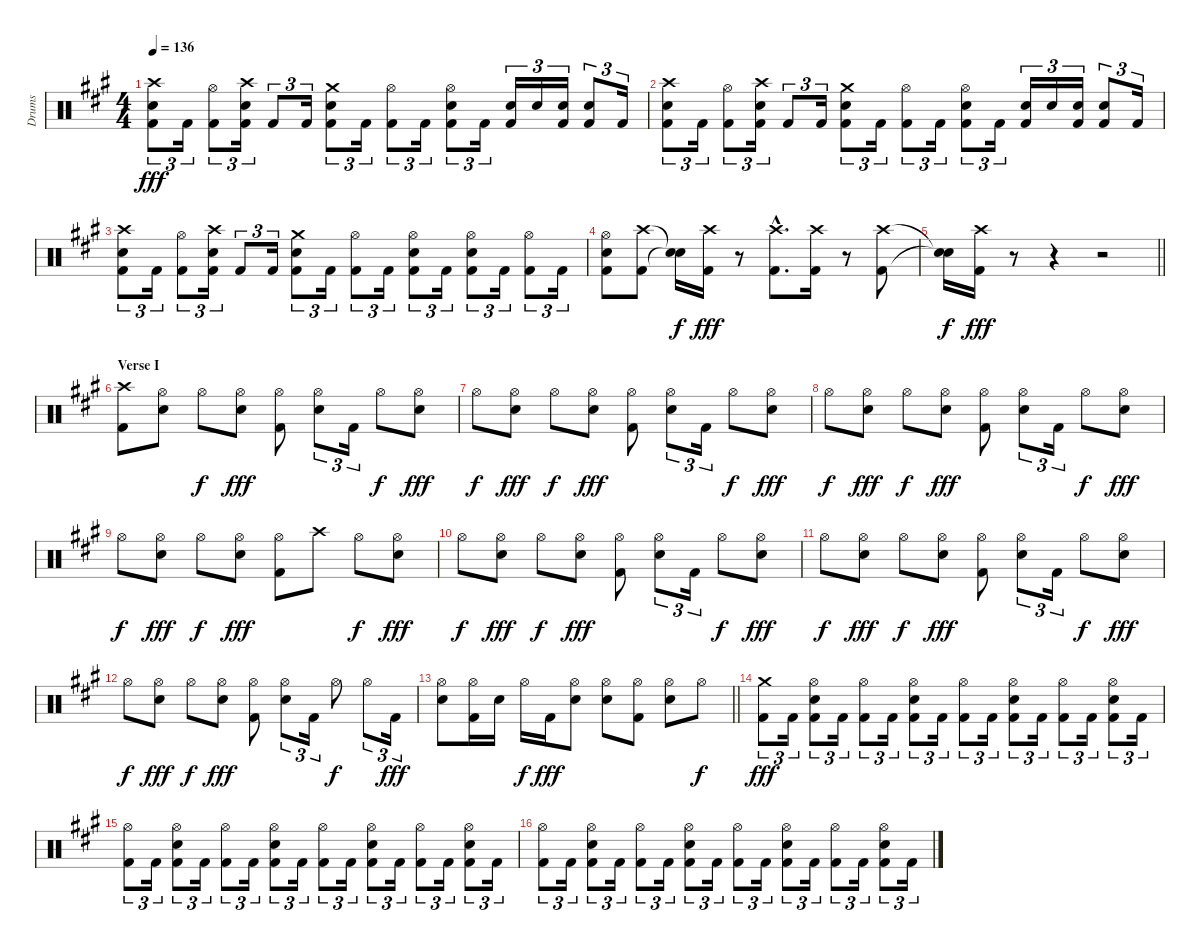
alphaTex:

\track ("Drums" "Drums") {instrument percussion}
\staff {score}
\articulation defaults
\ts (4 4)
\tempo 136
\clef neutral
\ks a
("Crash high (hit)" "Snare (hit) 2" "Kick (hit) 2").8{tu (3 2) dy fff} "Kick (hit) 2".16{tu (3 2)} ("Hi-Hat (open)" "Kick (hit) 2").8{tu (3 2)} ("Crash high (hit)" "Snare (hit) 2" "Kick (hit) 2").16{tu (3 2)} "Kick (hit) 2".8{tu (3 2)} "Kick (hit) 2".16{tu (3 2)} ("Crash medium (hit)" "Snare (hit) 2" "Kick (hit) 2").8{tu (3 2)} "Kick (hit) 2".16{tu (3 2)} ("Hi-Hat (open)" "Kick (hit) 2").8{tu (3 2)} "Kick (hit) 2".16{tu (3 2)} ("Hi-Hat (open)" "Snare (hit) 2" "Kick (hit) 2").8{tu (3 2)} "Kick (hit) 2".16{tu (3 2)} ("Snare (hit) 2" "Kick (hit) 2").16{tu (3 2)} "Snare (hit) 2".16{tu (3 2)} ("Snare (hit) 2" "Kick (hit) 2").16{tu (3 2)} ("Snare (hit) 2" "Kick (hit) 2").8{tu (3 2)} "Kick (hit) 2".16{tu (3 2)} |
("Crash high (hit)" "Snare (hit) 2" "Kick (hit) 2").8{tu (3 2)} "Kick (hit) 2".16{tu (3 2)} ("Hi-Hat (open)" "Kick (hit) 2").8{tu (3 2)} ("Crash high (hit)" "Snare (hit) 2" "Kick (hit) 2").16{tu (3 2)} "Kick (hit) 2".8{tu (3 2)} "Kick (hit) 2".16{tu (3 2)} ("Crash medium (hit)" "Snare (hit) 2" "Kick (hit) 2").8{tu (3 2)} "Kick (hit) 2".16{tu (3 2)} ("Hi-Hat (open)" "Kick (hit) 2").8{tu (3 2)} "Kick (hit) 2".16{tu (3 2)} ("Hi-Hat (open)" "Snare (hit) 2" "Kick (hit) 2").8{tu (3 2)} "Kick (hit) 2".16{tu (3 2)} ("Snare (hit) 2" "Kick (hit) 2").16{tu (3 2)} "Snare (hit) 2".16{tu (3 2)} ("Snare (hit) 2" "Kick (hit) 2").16{tu (3 2)} ("Snare (hit) 2" "Kick (hit) 2").8{tu (3 2)} "Kick (hit) 2".16{tu (3 2)} |
("Crash high (hit)" "Snare (hit) 2" "Kick (hit) 2").8{tu (3 2)} "Kick (hit) 2".16{tu (3 2)} ("Hi-Hat (open)" "Kick (hit) 2").8{tu (3 2)} ("Crash high (hit)" "Snare (hit) 2" "Kick (hit) 2").16{tu (3 2)} "Kick (hit) 2".8{tu (3 2)} "Kick (hit) 2".16{tu (3 2)} ("Crash medium (hit)" "Snare (hit) 2" "Kick (hit) 2").8{tu (3 2)} "Kick (hit) 2".16{tu (3 2)} ("Hi-Hat (open)" "Kick (hit) 2").8{tu (3 2)} "Kick (hit) 2".16{tu (3 2)} ("Hi-Hat (open)" "Snare (hit) 2" "Kick (hit) 2").8{tu (3 2)} "Kick (hit) 2".16{tu (3 2)} ("Hi-Hat (open)" "Snare (hit) 2" "Kick (hit) 2").8{tu (3 2)} "Kick (hit) 2".16{tu (3 2)} ("Hi-Hat (open)" "Kick (hit) 2").8{tu (3 2)} "Kick (hit) 2".16{tu (3 2)} |
("Hi-Hat (open)" "Snare (hit) 2" "Kick (hit) 2").8 ("Crash high (hit)" "Kick (hit) 2").8 ("Snare (hit)"{t} "Snare (hit)"{t}).16{dy f} ("Crash high (hit)" "Kick (hit) 2").16{dy fff} r.8 ("Crash high (hit)"{hac} "Kick (hit) 2"{hac}).8{d} ("Crash high (hit)" "Kick (hit) 2").16 r.8 ("Crash high (hit)" "Kick (hit) 2").8 |
\barLineRight lightlight
("Snare (hit)"{t} "Snare (hit)"{t}).16{dy f} ("Crash high (hit)" "Kick (hit) 2").16{dy fff} r.8 r.4 r.2 |
\section ("" "Verse I")
("Crash high (hit)" "Kick (hit) 2").8 ("Hi-Hat (open)" "Snare (hit) 2").8 "Hi-Hat (open)".8{dy f} ("Hi-Hat (open)" "Snare (hit) 2").8{dy fff} ("Hi-Hat (open)" "Kick (hit) 2").8 ("Hi-Hat (open)" "Snare (hit) 2").8{tu (3 2)} "Kick (hit) 2".16{tu (3 2)} "Hi-Hat (open)".8{dy f} ("Hi-Hat (open)" "Snare (hit) 2").8{dy fff} |
"Hi-Hat (open)".8{dy f} ("Hi-Hat (open)" "Snare (hit) 2").8{dy fff} "Hi-Hat (open)".8{dy f} ("Hi-Hat (open)" "Snare (hit) 2").8{dy fff} ("Hi-Hat (open)" "Kick (hit) 2").8 ("Hi-Hat (open)" "Snare (hit) 2").8{tu (3 2)} "Kick (hit) 2".16{tu (3 2)} "Hi-Hat (open)".8{dy f} ("Hi-Hat (open)" "Snare (hit) 2").8{dy fff} |
"Hi-Hat (open)".8{dy f} ("Hi-Hat (open)" "Snare (hit) 2").8{dy fff} "Hi-Hat (open)".8{dy f} ("Hi-Hat (open)" "Snare (hit) 2").8{dy fff} ("Hi-Hat (open)" "Kick (hit) 2").8 ("Hi-Hat (open)" "Snare (hit) 2").8{tu (3 2)} "Kick (hit) 2".16{tu (3 2)} "Hi-Hat (open)".8{dy f} ("Hi-Hat (open)" "Snare (hit) 2").8{dy fff} |
"Hi-Hat (open)".8{dy f} ("Hi-Hat (open)" "Snare (hit) 2").8{dy fff} "Hi-Hat (open)".8{dy f} ("Hi-Hat (open)" "Snare (hit) 2").8{dy fff} ("Hi-Hat (open)" "Kick (hit) 2").8 "Crash high (hit)".8 "Hi-Hat (open)".8{dy f} ("Hi-Hat (open)" "Snare (hit) 2").8{dy fff} |
"Hi-Hat (open)".8{dy f} ("Hi-Hat (open)" "Snare (hit) 2").8{dy fff} "Hi-Hat (open)".8{dy f} ("Hi-Hat (open)" "Snare (hit) 2").8{dy fff} ("Hi-Hat (open)" "Kick (hit) 2").8 ("Hi-Hat (open)" "Snare (hit) 2").8{tu (3 2)} "Kick (hit) 2".16{tu (3 2)} "Hi-Hat (open)".8{dy f} ("Hi-Hat (open)" "Snare (hit) 2").8{dy fff} |
"Hi-Hat (open)".8{dy f} ("Hi-Hat (open)" "Snare (hit) 2").8{dy fff} "Hi-Hat (open)".8{dy f} ("Hi-Hat (open)" "Snare (hit) 2").8{dy fff} ("Hi-Hat (open)" "Kick (hit) 2").8 ("Hi-Hat (open)" "Snare (hit) 2").8{tu (3 2)} "Kick (hit) 2".16{tu (3 2)} "Hi-Hat (open)".8{dy f} ("Hi-Hat (open)" "Snare (hit) 2").8{dy fff} |
"Hi-Hat (open)".8{dy f} ("Hi-Hat (open)" "Snare (hit) 2").8{dy fff} "Hi-Hat (open)".8{dy f} ("Hi-Hat (open)" "Snare (hit) 2").8{dy fff} ("Hi-Hat (open)" "Kick (hit) 2").8 ("Hi-Hat (open)" "Snare (hit) 2").8{tu (3 2)} "Kick (hit) 2".16{tu (3 2)} "Hi-Hat (open)".8{dy f} "Hi-Hat (open)".8{tu (3 2)} "Kick (hit) 2".16{tu (3 2) dy fff} |
\barLineRight lightlight
("Hi-Hat (open)" "Snare (hit) 2").8 ("Hi-Hat (open)" "Kick (hit) 2").16 "Snare (hit) 2".16 "Hi-Hat (open)".16{dy f} "Kick (hit) 2".16{dy fff} ("Hi-Hat (open)" "Snare (hit) 2").8 ("Hi-Hat (open)" "Snare (hit) 2").8 ("Hi-Hat (open)" "Kick (hit) 2").8 ("Hi-Hat (open)" "Snare (hit) 2").8 "Hi-Hat (open)".8{dy f} |
("Crash medium (hit)" "Kick (hit) 2").8{tu (3 2) dy fff} "Kick (hit) 2".16{tu (3 2)} ("Hi-Hat (open)" "Snare (hit) 2" "Kick (hit) 2").8{tu (3 2)} "Kick (hit) 2".16{tu (3 2)} ("Hi-Hat (open)" "Kick (hit) 2").8{tu (3 2)} "Kick (hit) 2".16{tu (3 2)} ("Hi-Hat (open)" "Snare (hit) 2" "Kick (hit) 2").8{tu (3 2)} "Kick (hit) 2".16{tu (3 2)} ("Hi-Hat (open)" "Kick (hit) 2").8{tu (3 2)} "Kick (hit) 2".16{tu (3 2)} ("Hi-Hat (open)" "Snare (hit) 2" "Kick (hit) 2").8{tu (3 2)} "Kick (hit) 2".16{tu (3 2)} ("Hi-Hat (open)" "Kick (hit) 2").8{tu (3 2)} "Kick (hit) 2".16{tu (3 2)} ("Hi-Hat (open)" "Snare (hit) 2" "Kick (hit) 2").8{tu (3 2)} "Kick (hit) 2".16{tu (3 2)} |
("Hi-Hat (open)" "Kick (hit) 2").8{tu (3 2)} "Kick (hit) 2".16{tu (3 2)} ("Hi-Hat (open)" "Snare (hit) 2" "Kick (hit) 2").8{tu (3 2)} "Kick (hit) 2".16{tu (3 2)} ("Hi-Hat (open)" "Kick (hit) 2").8{tu (3 2)} "Kick (hit) 2".16{tu (3 2)} ("Hi-Hat (open)" "Snare (hit) 2" "Kick (hit) 2").8{tu (3 2)} "Kick (hit) 2".16{tu (3 2)} ("Hi-Hat (open)" "Kick (hit) 2").8{tu (3 2)} "Kick (hit) 2".16{tu (3 2)} ("Hi-Hat (open)" "Snare (hit) 2" "Kick (hit) 2").8{tu (3 2)} "Kick (hit) 2".16{tu (3 2)} ("Hi-Hat (open)" "Kick (hit) 2").8{tu (3 2)} "Kick (hit) 2".16{tu (3 2)} ("Hi-Hat (open)" "Snare (hit) 2" "Kick (hit) 2").8{tu (3 2)} "Kick (hit) 2".16{tu (3 2)} |
("Hi-Hat (open)" "Kick (hit) 2").8{tu (3 2)} "Kick (hit) 2".16{tu (3 2)} ("Hi-Hat (open)" "Snare (hit) 2" "Kick (hit) 2").8{tu (3 2)} "Kick (hit) 2".16{tu (3 2)} ("Hi-Hat (open)" "Kick (hit) 2").8{tu (3 2)} "Kick (hit) 2".16{tu (3 2)} ("Hi-Hat (open)" "Snare (hit) 2" "Kick (hit) 2").8{tu (3 2)} "Kick (hit) 2".16{tu (3 2)} ("Hi-Hat (open)" "Kick (hit) 2").8{tu (3 2)} "Kick (hit) 2".16{tu (3 2)} ("Hi-Hat (open)" "Snare (hit) 2" "Kick (hit) 2").8{tu (3 2)} "Kick (hit) 2".16{tu (3 2)} ("Hi-Hat (open)" "Kick (hit) 2").8{tu (3 2)} "Kick (hit) 2".16{tu (3 2)} ("Hi-Hat (open)" "Snare (hit) 2" "Kick (hit) 2").8{tu (3 2)} "Kick (hit) 2".16{tu (3 2)}
